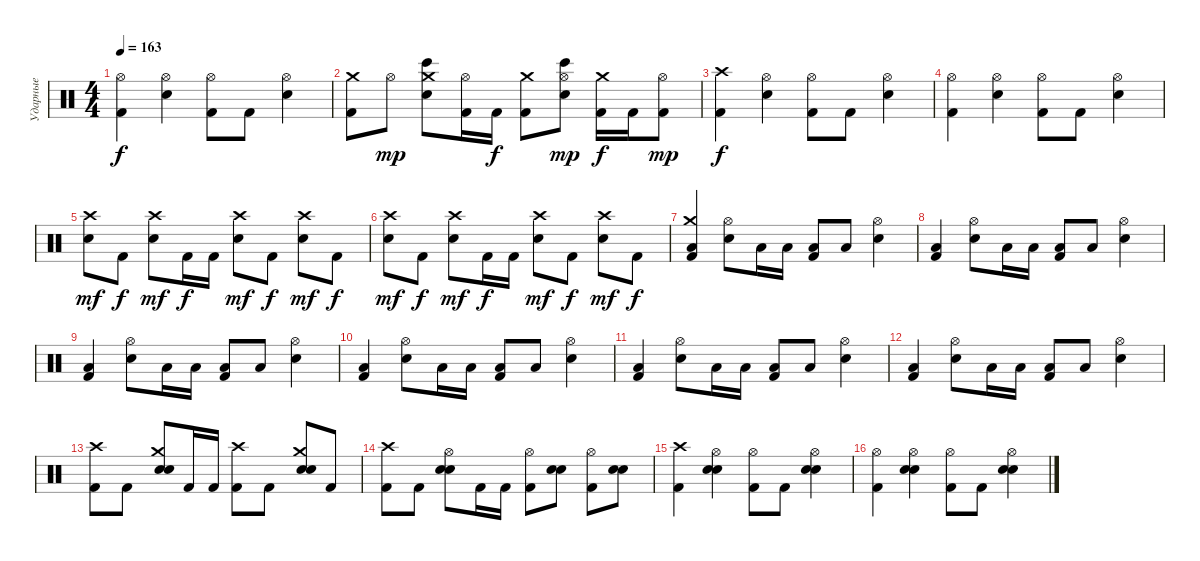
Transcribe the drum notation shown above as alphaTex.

\track ("Ударные" "Ударные") {instrument percussion}
\staff {score}
\articulation defaults
\ts (4 4)
\tempo 163
\clef neutral
\ks c
("Kick (hit) 2" "Hi-Hat (open)").4{dy f} ("Snare (hit) 2" "Hi-Hat (open)").4 ("Kick (hit) 2" "Hi-Hat (open)").8 "Kick (hit) 2".8 ("Snare (hit) 2" "Hi-Hat (open)").4 |
("Kick (hit) 2" "Crash medium (hit)").8 "Hi-Hat (open)".8{dy mp} ("Electric Snare (hit)" "Bongo High (hit)" "Crash medium (hit)").8 ("Kick (hit) 2" "Hi-Hat (open)").16 "Kick (hit) 2".16{dy f} ("Kick (hit) 2" "Crash medium (hit)").8 ("Electric Snare (hit)" "Bongo High (hit)" "Hi-Hat (open)").8{dy mp} ("Kick (hit) 2" "Crash medium (hit)").16{dy f} "Kick (hit) 2".16 ("Kick (hit) 2" "Hi-Hat (open)").8{dy mp} |
("Kick (hit) 2" "Crash high (hit)").4{dy f} ("Snare (hit) 2" "Hi-Hat (open)").4 ("Kick (hit) 2" "Hi-Hat (open)").8 "Kick (hit) 2".8 ("Snare (hit) 2" "Hi-Hat (open)").4 |
("Kick (hit) 2" "Hi-Hat (open)").4 ("Snare (hit) 2" "Hi-Hat (open)").4 ("Kick (hit) 2" "Hi-Hat (open)").8 "Kick (hit) 2".8 ("Snare (hit) 2" "Hi-Hat (open)").4 |
("Snare (hit) 2" "Crash high (hit)").8{dy mf} "Kick (hit) 2".8{dy f} ("Snare (hit) 2" "Crash high (hit)").8{dy mf} "Kick (hit) 2".16{dy f} "Kick (hit) 2".16 ("Snare (hit) 2" "Crash high (hit)").8{dy mf} "Kick (hit) 2".8{dy f} ("Snare (hit) 2" "Crash high (hit)").8{dy mf} "Kick (hit) 2".8{dy f} |
("Snare (hit) 2" "Crash high (hit)").8{dy mf} "Kick (hit) 2".8{dy f} ("Snare (hit) 2" "Crash high (hit)").8{dy mf} "Kick (hit) 2".16{dy f} "Kick (hit) 2".16 ("Snare (hit) 2" "Crash high (hit)").8{dy mf} "Kick (hit) 2".8{dy f} ("Snare (hit) 2" "Crash high (hit)").8{dy mf} "Kick (hit) 2".8{dy f} |
("Kick (hit) 2" "Low Tom (hit)" "Crash medium (hit)").4 ("Snare (hit) 2" "Hi-Hat (open)").8 "Low Tom (hit)".16 "Low Tom (hit)".16 ("Kick (hit) 2" "Low Tom (hit)").8 "Low Tom (hit)".8 ("Snare (hit) 2" "Hi-Hat (open)").4 |
("Kick (hit) 2" "Low Tom (hit)").4 ("Snare (hit) 2" "Hi-Hat (open)").8 "Low Tom (hit)".16 "Low Tom (hit)".16 ("Kick (hit) 2" "Low Tom (hit)").8 "Low Tom (hit)".8 ("Snare (hit) 2" "Hi-Hat (open)").4 |
("Kick (hit) 2" "Low Tom (hit)").4 ("Snare (hit) 2" "Hi-Hat (open)").8 "Low Tom (hit)".16 "Low Tom (hit)".16 ("Kick (hit) 2" "Low Tom (hit)").8 "Low Tom (hit)".8 ("Snare (hit) 2" "Hi-Hat (open)").4 |
("Kick (hit) 2" "Low Tom (hit)").4 ("Snare (hit) 2" "Hi-Hat (open)").8 "Low Tom (hit)".16 "Low Tom (hit)".16 ("Kick (hit) 2" "Low Tom (hit)").8 "Low Tom (hit)".8 ("Snare (hit) 2" "Hi-Hat (open)").4 |
("Kick (hit) 2" "Low Tom (hit)").4 ("Snare (hit) 2" "Hi-Hat (open)").8 "Low Tom (hit)".16 "Low Tom (hit)".16 ("Kick (hit) 2" "Low Tom (hit)").8 "Low Tom (hit)".8 ("Snare (hit) 2" "Hi-Hat (open)").4 |
("Kick (hit) 2" "Low Tom (hit)").4 ("Snare (hit) 2" "Hi-Hat (open)").8 "Low Tom (hit)".16 "Low Tom (hit)".16 ("Kick (hit) 2" "Low Tom (hit)").8 "Low Tom (hit)".8 ("Snare (hit) 2" "Hi-Hat (open)").4 |
("Kick (hit) 2" "Crash high (hit)").8 "Kick (hit) 2".8 ("Electric Snare (hit)" "Snare (hit) 2" "Crash medium (hit)").8 "Kick (hit) 2".16 "Kick (hit) 2".16 ("Kick (hit) 2" "Crash high (hit)").8 "Kick (hit) 2".8 ("Electric Snare (hit)" "Snare (hit) 2" "Crash medium (hit)").8 "Kick (hit) 2".8 |
("Kick (hit) 2" "Crash high (hit)").8 "Kick (hit) 2".8 ("Electric Snare (hit)" "Snare (hit) 2" "Hi-Hat (open)").8 "Kick (hit) 2".16 "Kick (hit) 2".16 ("Kick (hit) 2" "Hi-Hat (open)").8 ("Electric Snare (hit)" "Snare (hit) 2").8 ("Kick (hit) 2" "Hi-Hat (open)").8 ("Electric Snare (hit)" "Snare (hit) 2").8 |
("Kick (hit) 2" "Crash high (hit)").4 ("Electric Snare (hit)" "Snare (hit) 2" "Hi-Hat (open)").4 ("Kick (hit) 2" "Hi-Hat (open)").8 "Kick (hit) 2".8 ("Electric Snare (hit)" "Snare (hit) 2" "Hi-Hat (open)").4 |
("Kick (hit) 2" "Hi-Hat (open)").4 ("Electric Snare (hit)" "Snare (hit) 2" "Hi-Hat (open)").4 ("Kick (hit) 2" "Hi-Hat (open)").8 "Kick (hit) 2".8 ("Electric Snare (hit)" "Snare (hit) 2" "Hi-Hat (open)").4
